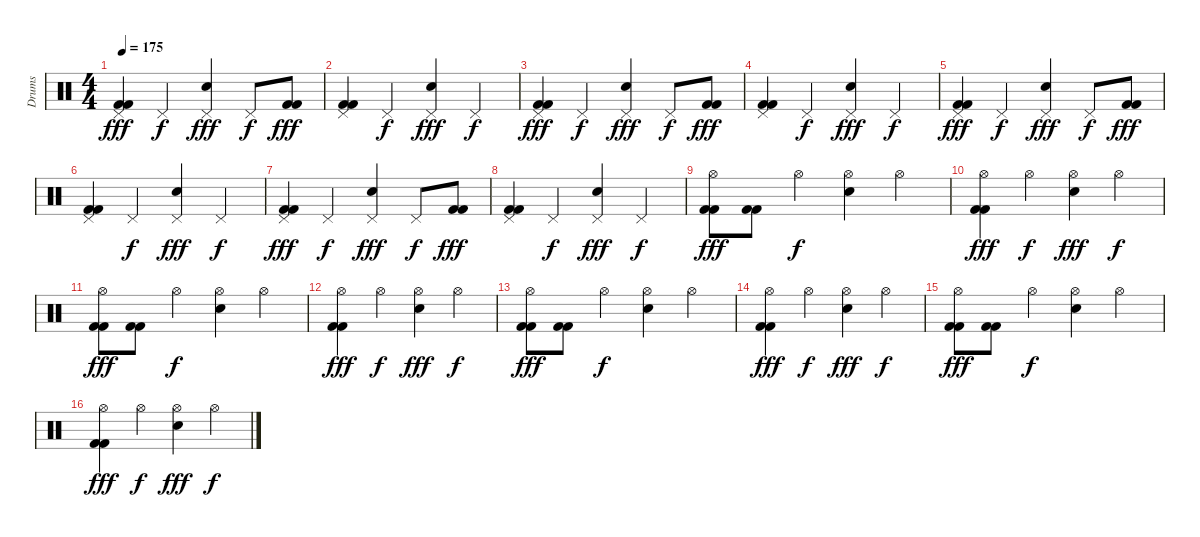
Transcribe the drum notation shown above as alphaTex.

\track ("Drums" "Drums") {instrument percussion}
\staff {score}
\articulation defaults
\ts (4 4)
\tempo 175
\clef neutral
\ks c
("Pedal Hi-Hat (hit)" "Kick (hit) 2" "Kick (hit) 2").4{dy fff} "Pedal Hi-Hat (hit)".4{dy f} ("Pedal Hi-Hat (hit)" "Snare (hit) 2").4{dy fff} "Pedal Hi-Hat (hit)".8{dy f} ("Kick (hit) 2" "Kick (hit) 2").8{dy fff} |
("Pedal Hi-Hat (hit)" "Kick (hit) 2" "Kick (hit) 2").4 "Pedal Hi-Hat (hit)".4{dy f} ("Pedal Hi-Hat (hit)" "Snare (hit) 2").4{dy fff} "Pedal Hi-Hat (hit)".4{dy f} |
("Pedal Hi-Hat (hit)" "Kick (hit) 2" "Kick (hit) 2").4{dy fff} "Pedal Hi-Hat (hit)".4{dy f} ("Pedal Hi-Hat (hit)" "Snare (hit) 2").4{dy fff} "Pedal Hi-Hat (hit)".8{dy f} ("Kick (hit) 2" "Kick (hit) 2").8{dy fff} |
("Pedal Hi-Hat (hit)" "Kick (hit) 2" "Kick (hit) 2").4 "Pedal Hi-Hat (hit)".4{dy f} ("Pedal Hi-Hat (hit)" "Snare (hit) 2").4{dy fff} "Pedal Hi-Hat (hit)".4{dy f} |
("Pedal Hi-Hat (hit)" "Kick (hit) 2" "Kick (hit) 2").4{dy fff} "Pedal Hi-Hat (hit)".4{dy f} ("Pedal Hi-Hat (hit)" "Snare (hit) 2").4{dy fff} "Pedal Hi-Hat (hit)".8{dy f} ("Kick (hit) 2" "Kick (hit) 2").8{dy fff} |
("Pedal Hi-Hat (hit)" "Kick (hit) 2" "Kick (hit) 2").4 "Pedal Hi-Hat (hit)".4{dy f} ("Pedal Hi-Hat (hit)" "Snare (hit) 2").4{dy fff} "Pedal Hi-Hat (hit)".4{dy f} |
("Pedal Hi-Hat (hit)" "Kick (hit) 2" "Kick (hit) 2").4{dy fff} "Pedal Hi-Hat (hit)".4{dy f} ("Pedal Hi-Hat (hit)" "Snare (hit) 2").4{dy fff} "Pedal Hi-Hat (hit)".8{dy f} ("Kick (hit) 2" "Kick (hit) 2").8{dy fff} |
("Pedal Hi-Hat (hit)" "Kick (hit) 2" "Kick (hit) 2").4 "Pedal Hi-Hat (hit)".4{dy f} ("Pedal Hi-Hat (hit)" "Snare (hit) 2").4{dy fff} "Pedal Hi-Hat (hit)".4{dy f} |
("Hi-Hat (open)" "Kick (hit) 2" "Kick (hit) 2").8{dy fff} ("Kick (hit) 2" "Kick (hit) 2").8 "Hi-Hat (open)".4{dy f} ("Hi-Hat (open)" "Snare (hit) 2").4 "Hi-Hat (open)".4 |
("Hi-Hat (open)" "Kick (hit) 2" "Kick (hit) 2").4{dy fff} "Hi-Hat (open)".4{dy f} ("Hi-Hat (open)" "Snare (hit) 2").4{dy fff} "Hi-Hat (open)".4{dy f} |
("Hi-Hat (open)" "Kick (hit) 2" "Kick (hit) 2").8{dy fff} ("Kick (hit) 2" "Kick (hit) 2").8 "Hi-Hat (open)".4{dy f} ("Hi-Hat (open)" "Snare (hit) 2").4 "Hi-Hat (open)".4 |
("Hi-Hat (open)" "Kick (hit) 2" "Kick (hit) 2").4{dy fff} "Hi-Hat (open)".4{dy f} ("Hi-Hat (open)" "Snare (hit) 2").4{dy fff} "Hi-Hat (open)".4{dy f} |
("Hi-Hat (open)" "Kick (hit) 2" "Kick (hit) 2").8{dy fff} ("Kick (hit) 2" "Kick (hit) 2").8 "Hi-Hat (open)".4{dy f} ("Hi-Hat (open)" "Snare (hit) 2").4 "Hi-Hat (open)".4 |
("Hi-Hat (open)" "Kick (hit) 2" "Kick (hit) 2").4{dy fff} "Hi-Hat (open)".4{dy f} ("Hi-Hat (open)" "Snare (hit) 2").4{dy fff} "Hi-Hat (open)".4{dy f} |
("Hi-Hat (open)" "Kick (hit) 2" "Kick (hit) 2").8{dy fff} ("Kick (hit) 2" "Kick (hit) 2").8 "Hi-Hat (open)".4{dy f} ("Hi-Hat (open)" "Snare (hit) 2").4 "Hi-Hat (open)".4 |
("Hi-Hat (open)" "Kick (hit) 2" "Kick (hit) 2").4{dy fff} "Hi-Hat (open)".4{dy f} ("Hi-Hat (open)" "Snare (hit) 2").4{dy fff} "Hi-Hat (open)".4{dy f}
